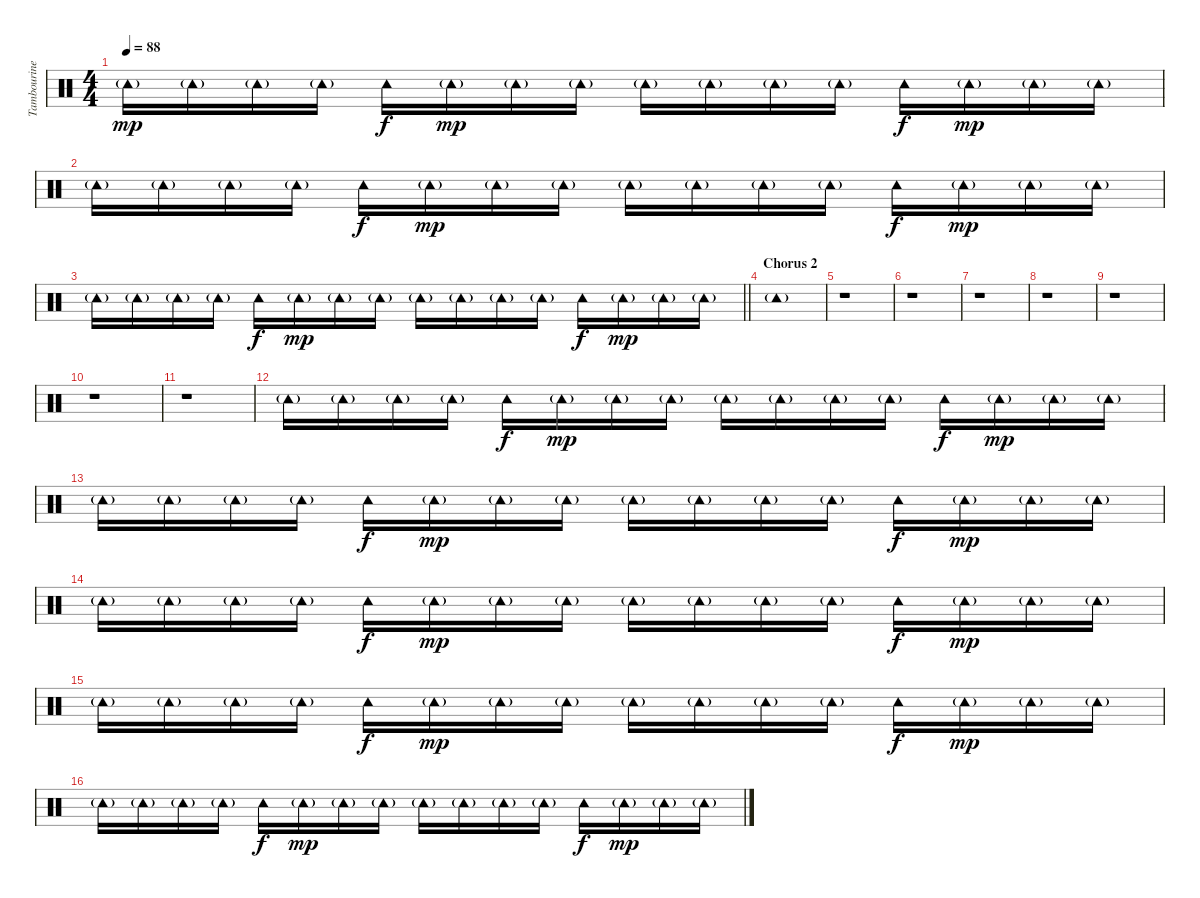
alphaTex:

\track ("Tambourine" "Tambourine") {instrument percussion}
\staff {score}
\articulation defaults
\ts (4 4)
\tempo 88
\clef neutral
\ks c "Tambourine (hit)"{g}.16{dy mp} "Tambourine (hit)"{g}.16 "Tambourine (hit)"{g}.16 "Tambourine (hit)"{g}.16 "Tambourine (hit)".16{dy f} "Tambourine (hit)"{g}.16{dy mp} "Tambourine (hit)"{g}.16 "Tambourine (hit)"{g}.16 "Tambourine (hit)"{g}.16 "Tambourine (hit)"{g}.16 "Tambourine (hit)"{g}.16 "Tambourine (hit)"{g}.16 "Tambourine (hit)".16{dy f} "Tambourine (hit)"{g}.16{dy mp} "Tambourine (hit)"{g}.16 "Tambourine (hit)"{g}.16
|
"Tambourine (hit)"{g}.16 "Tambourine (hit)"{g}.16 "Tambourine (hit)"{g}.16 "Tambourine (hit)"{g}.16 "Tambourine (hit)".16{dy f} "Tambourine (hit)"{g}.16{dy mp} "Tambourine (hit)"{g}.16 "Tambourine (hit)"{g}.16 "Tambourine (hit)"{g}.16 "Tambourine (hit)"{g}.16 "Tambourine (hit)"{g}.16 "Tambourine (hit)"{g}.16 "Tambourine (hit)".16{dy f} "Tambourine (hit)"{g}.16{dy mp} "Tambourine (hit)"{g}.16 "Tambourine (hit)"{g}.16 |
\barLineRight lightlight "Tambourine (hit)"{g}.16 "Tambourine (hit)"{g}.16 "Tambourine (hit)"{g}.16 "Tambourine (hit)"{g}.16 "Tambourine (hit)".16{dy f} "Tambourine (hit)"{g}.16{dy mp} "Tambourine (hit)"{g}.16 "Tambourine (hit)"{g}.16 "Tambourine (hit)"{g}.16 "Tambourine (hit)"{g}.16 "Tambourine (hit)"{g}.16 "Tambourine (hit)"{g}.16 "Tambourine (hit)".16{dy f} "Tambourine (hit)"{g}.16{dy mp} "Tambourine (hit)"{g}.16 "Tambourine (hit)"{g}.16
|
\section ("" "Chorus 2")
"Tambourine (hit)"{g}.1 |
r.1 |
r.1 |
r.1 |
r.1 |
r.1 |
r.1 |
r.1 |
"Tambourine (hit)"{g}.16 "Tambourine (hit)"{g}.16 "Tambourine (hit)"{g}.16 "Tambourine (hit)"{g}.16 "Tambourine (hit)".16{dy f} "Tambourine (hit)"{g}.16{dy mp} "Tambourine (hit)"{g}.16 "Tambourine (hit)"{g}.16 "Tambourine (hit)"{g}.16 "Tambourine (hit)"{g}.16 "Tambourine (hit)"{g}.16 "Tambourine (hit)"{g}.16 "Tambourine (hit)".16{dy f} "Tambourine (hit)"{g}.16{dy mp} "Tambourine (hit)"{g}.16 "Tambourine (hit)"{g}.16 |
"Tambourine (hit)"{g}.16 "Tambourine (hit)"{g}.16 "Tambourine (hit)"{g}.16 "Tambourine (hit)"{g}.16 "Tambourine (hit)".16{dy f} "Tambourine (hit)"{g}.16{dy mp} "Tambourine (hit)"{g}.16 "Tambourine (hit)"{g}.16 "Tambourine (hit)"{g}.16 "Tambourine (hit)"{g}.16 "Tambourine (hit)"{g}.16 "Tambourine (hit)"{g}.16 "Tambourine (hit)".16{dy f} "Tambourine (hit)"{g}.16{dy mp} "Tambourine (hit)"{g}.16 "Tambourine (hit)"{g}.16 |
"Tambourine (hit)"{g}.16 "Tambourine (hit)"{g}.16 "Tambourine (hit)"{g}.16 "Tambourine (hit)"{g}.16 "Tambourine (hit)".16{dy f} "Tambourine (hit)"{g}.16{dy mp} "Tambourine (hit)"{g}.16 "Tambourine (hit)"{g}.16 "Tambourine (hit)"{g}.16 "Tambourine (hit)"{g}.16 "Tambourine (hit)"{g}.16 "Tambourine (hit)"{g}.16 "Tambourine (hit)".16{dy f} "Tambourine (hit)"{g}.16{dy mp} "Tambourine (hit)"{g}.16 "Tambourine (hit)"{g}.16 |
"Tambourine (hit)"{g}.16 "Tambourine (hit)"{g}.16 "Tambourine (hit)"{g}.16 "Tambourine (hit)"{g}.16 "Tambourine (hit)".16{dy f} "Tambourine (hit)"{g}.16{dy mp} "Tambourine (hit)"{g}.16 "Tambourine (hit)"{g}.16 "Tambourine (hit)"{g}.16 "Tambourine (hit)"{g}.16 "Tambourine (hit)"{g}.16 "Tambourine (hit)"{g}.16 "Tambourine (hit)".16{dy f} "Tambourine (hit)"{g}.16{dy mp} "Tambourine (hit)"{g}.16 "Tambourine (hit)"{g}.16 |
"Tambourine (hit)"{g}.16 "Tambourine (hit)"{g}.16 "Tambourine (hit)"{g}.16 "Tambourine (hit)"{g}.16 "Tambourine (hit)".16{dy f} "Tambourine (hit)"{g}.16{dy mp} "Tambourine (hit)"{g}.16 "Tambourine (hit)"{g}.16 "Tambourine (hit)"{g}.16 "Tambourine (hit)"{g}.16 "Tambourine (hit)"{g}.16 "Tambourine (hit)"{g}.16 "Tambourine (hit)".16{dy f} "Tambourine (hit)"{g}.16{dy mp} "Tambourine (hit)"{g}.16 "Tambourine (hit)"{g}.16
